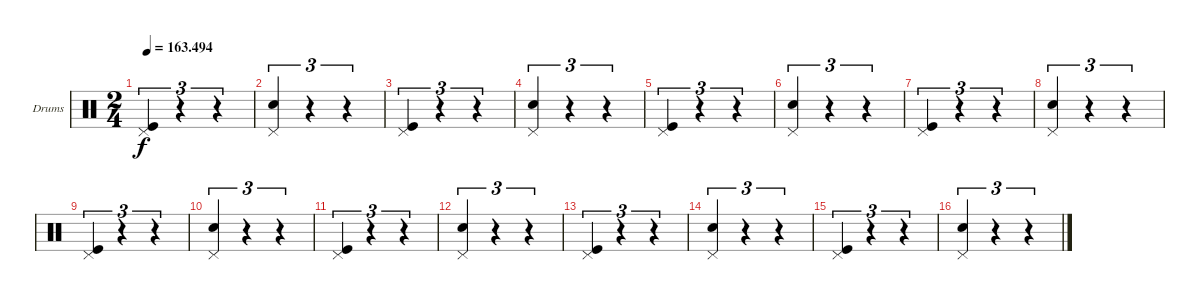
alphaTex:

\defaultSystemsLayout 4
\bracketExtendMode groupsimilarinstruments
\firstSystemTrackNameOrientation horizontal
\otherSystemsTrackNameOrientation horizontal
\track ("Drumkit" "Drums") {instrument percussion}
\staff {score}
\articulation defaults
\ts (2 4)
\tempo
163.494
\accidentals auto
\clef neutral
\ottava regular
\simile none
\ks c
("Kick (hit)" "Pedal Hi-Hat (hit)").4{tu (3 2) dy f} r.4{tu (3 2)} r.4{tu (3 2)} |
("Snare (hit) 2" "Pedal Hi-Hat (hit)").4{tu (3 2)} r.4{tu (3 2)} r.4{tu (3 2)} |
("Kick (hit)" "Pedal Hi-Hat (hit)").4{tu (3 2)} r.4{tu (3 2)} r.4{tu (3 2)} |
("Snare (hit) 2" "Pedal Hi-Hat (hit)").4{tu (3 2)} r.4{tu (3 2)} r.4{tu (3 2)} |
("Kick (hit)" "Pedal Hi-Hat (hit)").4{tu (3 2)} r.4{tu (3 2)} r.4{tu (3 2)} |
("Snare (hit) 2" "Pedal Hi-Hat (hit)").4{tu (3 2)} r.4{tu (3 2)} r.4{tu (3 2)} |
("Kick (hit)" "Pedal Hi-Hat (hit)").4{tu (3 2)} r.4{tu (3 2)} r.4{tu (3 2)} |
("Snare (hit) 2" "Pedal Hi-Hat (hit)").4{tu (3 2)} r.4{tu (3 2)} r.4{tu (3 2)} |
("Kick (hit)" "Pedal Hi-Hat (hit)").4{tu (3 2)} r.4{tu (3 2)} r.4{tu (3 2)} |
("Snare (hit) 2" "Pedal Hi-Hat (hit)").4{tu (3 2)} r.4{tu (3 2)} r.4{tu (3 2)} |
("Kick (hit)" "Pedal Hi-Hat (hit)").4{tu (3 2)} r.4{tu (3 2)} r.4{tu (3 2)} |
("Snare (hit) 2" "Pedal Hi-Hat (hit)").4{tu (3 2)} r.4{tu (3 2)} r.4{tu (3 2)} |
("Kick (hit)" "Pedal Hi-Hat (hit)").4{tu (3 2)} r.4{tu (3 2)} r.4{tu (3 2)} |
("Snare (hit) 2" "Pedal Hi-Hat (hit)").4{tu (3 2)} r.4{tu (3 2)} r.4{tu (3 2)} |
("Kick (hit)" "Pedal Hi-Hat (hit)").4{tu (3 2)} r.4{tu (3 2)} r.4{tu (3 2)} |
("Snare (hit) 2" "Pedal Hi-Hat (hit)").4{tu (3 2)} r.4{tu (3 2)} r.4{tu (3 2)}
